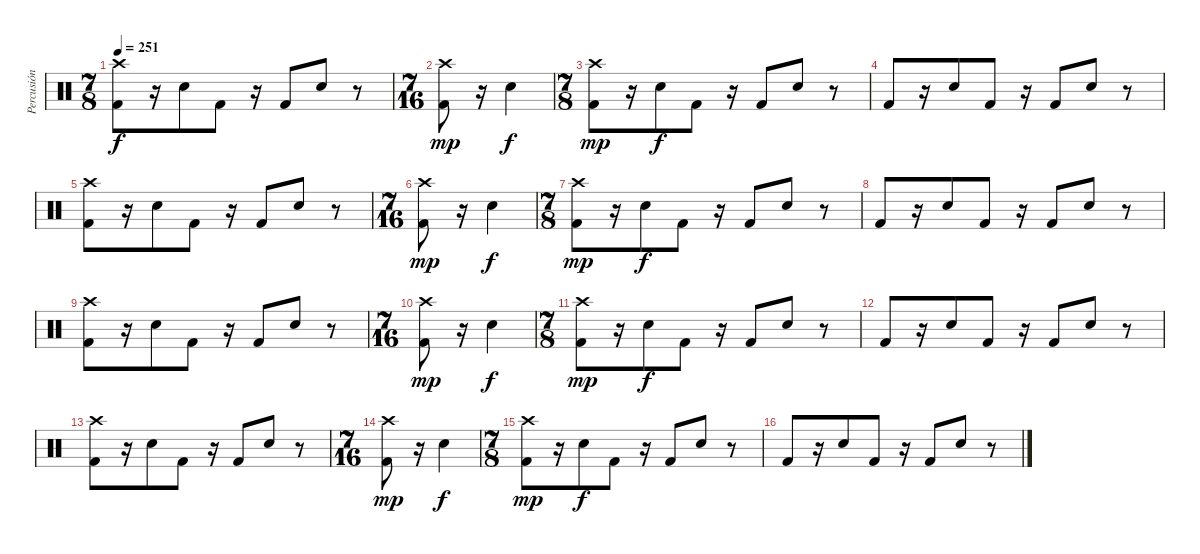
\track ("Percusión" "Percusión") {instrument percussion}
\staff {score}
\articulation defaults
\ts (7 8)
\tempo 251
\clef neutral
\ks c
("Crash high (hit)" "Kick (hit) 2").8{dy f} r.16 "Snare (hit) 2".8 "Kick (hit) 2".8 r.16 "Kick (hit) 2".8 "Snare (hit) 2".8 r.8 |
\ts (7 16)
("Crash high (hit)" "Kick (hit) 2").8{dy mp} r.16 "Snare (hit) 2".4{dy f} |
\ts (7 8)
("Crash high (hit)" "Kick (hit) 2").8{dy mp} r.16 "Snare (hit) 2".8{dy f} "Kick (hit) 2".8 r.16 "Kick (hit) 2".8 "Snare (hit) 2".8 r.8 |
"Kick (hit) 2".8 r.16 "Snare (hit) 2".8 "Kick (hit) 2".8 r.16 "Kick (hit) 2".8 "Snare (hit) 2".8 r.8 |
("Crash high (hit)" "Kick (hit) 2").8 r.16 "Snare (hit) 2".8 "Kick (hit) 2".8 r.16 "Kick (hit) 2".8 "Snare (hit) 2".8 r.8 |
\ts (7 16)
("Crash high (hit)" "Kick (hit) 2").8{dy mp} r.16 "Snare (hit) 2".4{dy f} |
\ts (7 8)
("Crash high (hit)" "Kick (hit) 2").8{dy mp} r.16 "Snare (hit) 2".8{dy f} "Kick (hit) 2".8 r.16 "Kick (hit) 2".8 "Snare (hit) 2".8 r.8 |
"Kick (hit) 2".8 r.16 "Snare (hit) 2".8 "Kick (hit) 2".8 r.16 "Kick (hit) 2".8 "Snare (hit) 2".8 r.8 |
("Crash high (hit)" "Kick (hit) 2").8 r.16 "Snare (hit) 2".8 "Kick (hit) 2".8 r.16 "Kick (hit) 2".8 "Snare (hit) 2".8 r.8 |
\ts (7 16)
("Crash high (hit)" "Kick (hit) 2").8{dy mp} r.16 "Snare (hit) 2".4{dy f} |
\ts (7 8)
("Crash high (hit)" "Kick (hit) 2").8{dy mp} r.16 "Snare (hit) 2".8{dy f} "Kick (hit) 2".8 r.16 "Kick (hit) 2".8 "Snare (hit) 2".8 r.8 |
"Kick (hit) 2".8 r.16 "Snare (hit) 2".8 "Kick (hit) 2".8 r.16 "Kick (hit) 2".8 "Snare (hit) 2".8 r.8 |
("Crash high (hit)" "Kick (hit) 2").8 r.16 "Snare (hit) 2".8 "Kick (hit) 2".8 r.16 "Kick (hit) 2".8 "Snare (hit) 2".8 r.8 |
\ts (7 16)
("Crash high (hit)" "Kick (hit) 2").8{dy mp} r.16 "Snare (hit) 2".4{dy f} |
\ts (7 8)
("Crash high (hit)" "Kick (hit) 2").8{dy mp} r.16 "Snare (hit) 2".8{dy f} "Kick (hit) 2".8 r.16 "Kick (hit) 2".8 "Snare (hit) 2".8 r.8 |
"Kick (hit) 2".8 r.16 "Snare (hit) 2".8 "Kick (hit) 2".8 r.16 "Kick (hit) 2".8 "Snare (hit) 2".8 r.8
